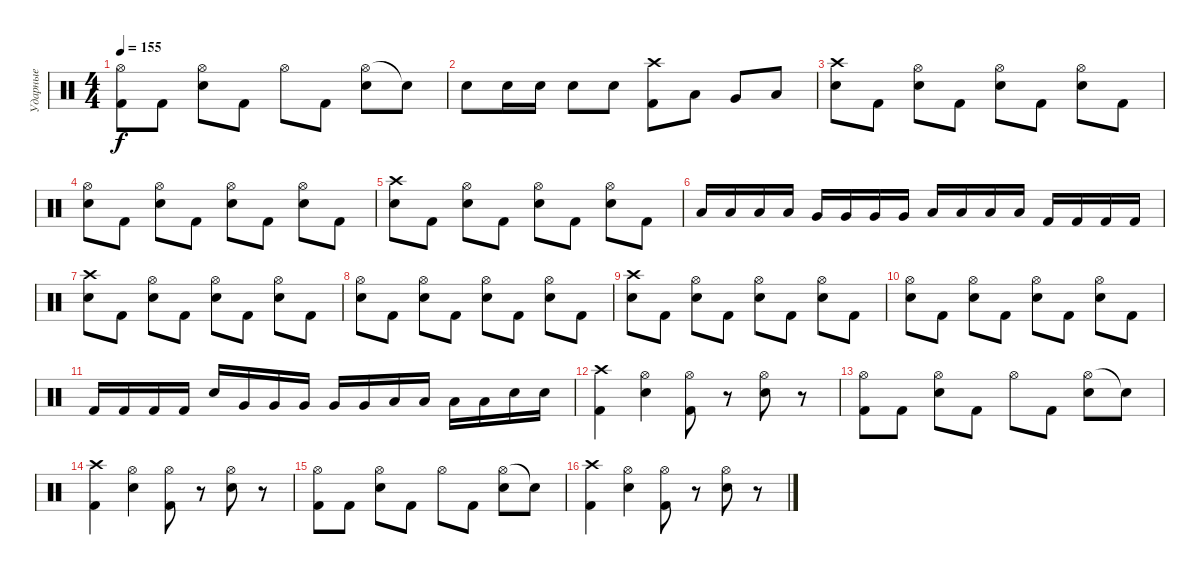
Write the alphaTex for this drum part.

\track ("Ударные" "Ударные") {instrument percussion}
\staff {score}
\articulation defaults
\ts (4 4)
\tempo 155
\clef neutral
\ks c
("Hi-Hat (open)" "Kick (hit) 2").8{dy f} "Kick (hit) 2".8 ("Hi-Hat (open)" "Electric Snare (hit)").8 "Kick (hit) 2".8 "Hi-Hat (open)".8 "Kick (hit) 2".8 ("Hi-Hat (open)" "Electric Snare (hit)").8 "Snare (hit)"{t}.8 |
"Electric Snare (hit)".8 "Electric Snare (hit)".16 "Electric Snare (hit)".16 "Electric Snare (hit)".8 "Electric Snare (hit)".8 ("Crash high (hit)" "Kick (hit) 2").8 "Low Tom (hit)".8 "Very Low Tom (hit)".8 "Low Floor Tom (hit)".8 |
("Crash high (hit)" "Electric Snare (hit)").8 "Kick (hit) 2".8 ("Hi-Hat (open)" "Electric Snare (hit)").8 "Kick (hit) 2".8 ("Hi-Hat (open)" "Electric Snare (hit)").8 "Kick (hit) 2".8 ("Hi-Hat (open)" "Electric Snare (hit)").8 "Kick (hit) 2".8 |
("Hi-Hat (open)" "Electric Snare (hit)").8 "Kick (hit) 2".8 ("Hi-Hat (open)" "Electric Snare (hit)").8 "Kick (hit) 2".8 ("Hi-Hat (open)" "Electric Snare (hit)").8 "Kick (hit) 2".8 ("Hi-Hat (open)" "Electric Snare (hit)").8 "Kick (hit) 2".8 |
("Crash high (hit)" "Electric Snare (hit)").8 "Kick (hit) 2".8 ("Hi-Hat (open)" "Electric Snare (hit)").8 "Kick (hit) 2".8 ("Hi-Hat (open)" "Electric Snare (hit)").8 "Kick (hit) 2".8 ("Hi-Hat (open)" "Electric Snare (hit)").8 "Kick (hit) 2".8 |
"Low Tom (hit)".16 "Low Tom (hit)".16 "Low Tom (hit)".16 "Low Tom (hit)".16 "Very Low Tom (hit)".16 "Very Low Tom (hit)".16 "Very Low Tom (hit)".16 "Very Low Tom (hit)".16 "Low Floor Tom (hit)".16 "Low Floor Tom (hit)".16 "Low Floor Tom (hit)".16 "Low Floor Tom (hit)".16 "Kick (hit) 2".16 "Kick (hit) 2".16 "Kick (hit) 2".16 "Kick (hit) 2".16 |
("Crash high (hit)" "Electric Snare (hit)").8 "Kick (hit) 2".8 ("Hi-Hat (open)" "Electric Snare (hit)").8 "Kick (hit) 2".8 ("Hi-Hat (open)" "Electric Snare (hit)").8 "Kick (hit) 2".8 ("Hi-Hat (open)" "Electric Snare (hit)").8 "Kick (hit) 2".8 |
("Hi-Hat (open)" "Electric Snare (hit)").8 "Kick (hit) 2".8 ("Hi-Hat (open)" "Electric Snare (hit)").8 "Kick (hit) 2".8 ("Hi-Hat (open)" "Electric Snare (hit)").8 "Kick (hit) 2".8 ("Hi-Hat (open)" "Electric Snare (hit)").8 "Kick (hit) 2".8 |
("Crash high (hit)" "Electric Snare (hit)").8 "Kick (hit) 2".8 ("Hi-Hat (open)" "Electric Snare (hit)").8 "Kick (hit) 2".8 ("Hi-Hat (open)" "Electric Snare (hit)").8 "Kick (hit) 2".8 ("Hi-Hat (open)" "Electric Snare (hit)").8 "Kick (hit) 2".8 |
("Hi-Hat (open)" "Electric Snare (hit)").8 "Kick (hit) 2".8 ("Hi-Hat (open)" "Electric Snare (hit)").8 "Kick (hit) 2".8 ("Hi-Hat (open)" "Electric Snare (hit)").8 "Kick (hit) 2".8 ("Hi-Hat (open)" "Electric Snare (hit)").8 "Kick (hit) 2".8 |
"Kick (hit) 2".16 "Kick (hit) 2".16 "Kick (hit) 2".16 "Kick (hit) 2".16 "Electric Snare (hit)".16 "Very Low Tom (hit)".16 "Very Low Tom (hit)".16 "Very Low Tom (hit)".16 "Very Low Tom (hit)".16 "Very Low Tom (hit)".16 "Low Tom (hit)".16 "Low Tom (hit)".16 "Low Tom (hit)".16 "Low Tom (hit)".16 "Electric Snare (hit)".16 "Electric Snare (hit)".16 |
("Crash high (hit)" "Kick (hit) 2").4 ("Hi-Hat (open)" "Electric Snare (hit)").4 ("Hi-Hat (open)" "Kick (hit) 2").8 r.8 ("Hi-Hat (open)" "Electric Snare (hit)").8 r.8 |
("Hi-Hat (open)" "Kick (hit) 2").8 "Kick (hit) 2".8 ("Hi-Hat (open)" "Electric Snare (hit)").8 "Kick (hit) 2".8 "Hi-Hat (open)".8 "Kick (hit) 2".8 ("Hi-Hat (open)" "Electric Snare (hit)").8 "Snare (hit)"{t}.8 |
("Crash high (hit)" "Kick (hit) 2").4 ("Hi-Hat (open)" "Electric Snare (hit)").4 ("Hi-Hat (open)" "Kick (hit) 2").8 r.8 ("Hi-Hat (open)" "Electric Snare (hit)").8 r.8 |
("Hi-Hat (open)" "Kick (hit) 2").8 "Kick (hit) 2".8 ("Hi-Hat (open)" "Electric Snare (hit)").8 "Kick (hit) 2".8 "Hi-Hat (open)".8 "Kick (hit) 2".8 ("Hi-Hat (open)" "Electric Snare (hit)").8 "Snare (hit)"{t}.8 |
("Crash high (hit)" "Kick (hit) 2").4 ("Hi-Hat (open)" "Electric Snare (hit)").4 ("Hi-Hat (open)" "Kick (hit) 2").8 r.8 ("Hi-Hat (open)" "Electric Snare (hit)").8 r.8
